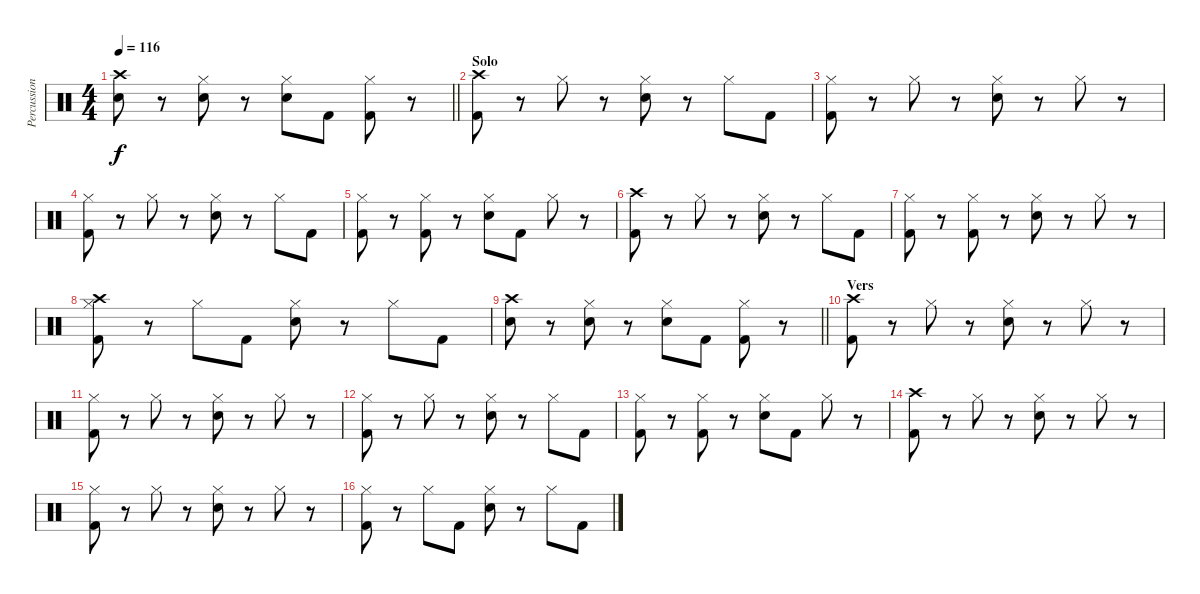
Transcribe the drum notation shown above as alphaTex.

\track ("Percussion" "Percussion") {instrument percussion}
\staff {score}
\articulation defaults
\ts (4 4)
\tempo 116
\clef neutral
\barLineRight lightlight
\ks c
("Crash high (hit)" "Snare (hit) 2").8{dy f} r.8 ("Hi-Hat (closed)" "Snare (hit) 2").8 r.8 ("Hi-Hat (closed)" "Snare (hit) 2").8 "Kick (hit) 2".8 ("Hi-Hat (closed)" "Kick (hit) 2").8 r.8 |
\section ("" "Solo")
("Crash high (hit)" "Kick (hit) 2").8 r.8 "Hi-Hat (closed)".8 r.8 ("Hi-Hat (closed)" "Snare (hit) 2").8 r.8 "Hi-Hat (closed)".8 "Kick (hit) 2".8 |
("Hi-Hat (closed)" "Kick (hit) 2").8 r.8 "Hi-Hat (closed)".8 r.8 ("Hi-Hat (closed)" "Snare (hit) 2").8 r.8 "Hi-Hat (closed)".8 r.8 |
("Hi-Hat (closed)" "Kick (hit) 2").8 r.8 "Hi-Hat (closed)".8 r.8 ("Hi-Hat (closed)" "Snare (hit) 2").8 r.8 "Hi-Hat (closed)".8 "Kick (hit) 2".8 |
("Hi-Hat (closed)" "Kick (hit) 2").8 r.8 ("Hi-Hat (closed)" "Kick (hit) 2").8 r.8 ("Hi-Hat (closed)" "Snare (hit) 2").8 "Kick (hit) 2".8 "Hi-Hat (closed)".8 r.8 |
("Crash high (hit)" "Kick (hit) 2").8 r.8 "Hi-Hat (closed)".8 r.8 ("Hi-Hat (closed)" "Snare (hit) 2").8 r.8 "Hi-Hat (closed)".8 "Kick (hit) 2".8 |
("Hi-Hat (closed)" "Kick (hit) 2").8 r.8 ("Hi-Hat (closed)" "Kick (hit) 2").8 r.8 ("Hi-Hat (closed)" "Snare (hit) 2").8 r.8 "Hi-Hat (closed)".8 r.8 |
("Crash high (hit)" "Hi-Hat (closed)" "Kick (hit) 2").8 r.8 "Hi-Hat (closed)".8 "Kick (hit) 2".8 ("Hi-Hat (closed)" "Snare (hit) 2").8 r.8 "Hi-Hat (closed)".8 "Kick (hit) 2".8 |
\barLineRight lightlight
("Crash high (hit)" "Snare (hit) 2").8 r.8 ("Hi-Hat (closed)" "Snare (hit) 2").8 r.8 ("Hi-Hat (closed)" "Snare (hit) 2").8 "Kick (hit) 2".8 ("Hi-Hat (closed)" "Kick (hit) 2").8 r.8 |
\section ("" "Vers")
("Crash high (hit)" "Kick (hit) 2").8 r.8 "Hi-Hat (closed)".8 r.8 ("Hi-Hat (closed)" "Snare (hit) 2").8 r.8 "Hi-Hat (closed)".8 r.8 |
("Hi-Hat (closed)" "Kick (hit) 2").8 r.8 "Hi-Hat (closed)".8 r.8 ("Hi-Hat (closed)" "Snare (hit) 2").8 r.8 "Hi-Hat (closed)".8 r.8 |
("Hi-Hat (closed)" "Kick (hit) 2").8 r.8 "Hi-Hat (closed)".8 r.8 ("Hi-Hat (closed)" "Snare (hit) 2").8 r.8 "Hi-Hat (closed)".8 "Kick (hit) 2".8 |
("Hi-Hat (closed)" "Kick (hit) 2").8 r.8 ("Hi-Hat (closed)" "Kick (hit) 2").8 r.8 ("Hi-Hat (closed)" "Snare (hit) 2").8 "Kick (hit) 2".8 "Hi-Hat (closed)".8 r.8 |
("Crash high (hit)" "Kick (hit) 2").8 r.8 "Hi-Hat (closed)".8 r.8 ("Hi-Hat (closed)" "Snare (hit) 2").8 r.8 "Hi-Hat (closed)".8 r.8 |
("Hi-Hat (closed)" "Kick (hit) 2").8 r.8 "Hi-Hat (closed)".8 r.8 ("Hi-Hat (closed)" "Snare (hit) 2").8 r.8 "Hi-Hat (closed)".8 r.8 |
("Hi-Hat (closed)" "Kick (hit) 2").8 r.8 "Hi-Hat (closed)".8 "Kick (hit) 2".8 ("Hi-Hat (closed)" "Snare (hit) 2").8 r.8 "Hi-Hat (closed)".8 "Kick (hit) 2".8
